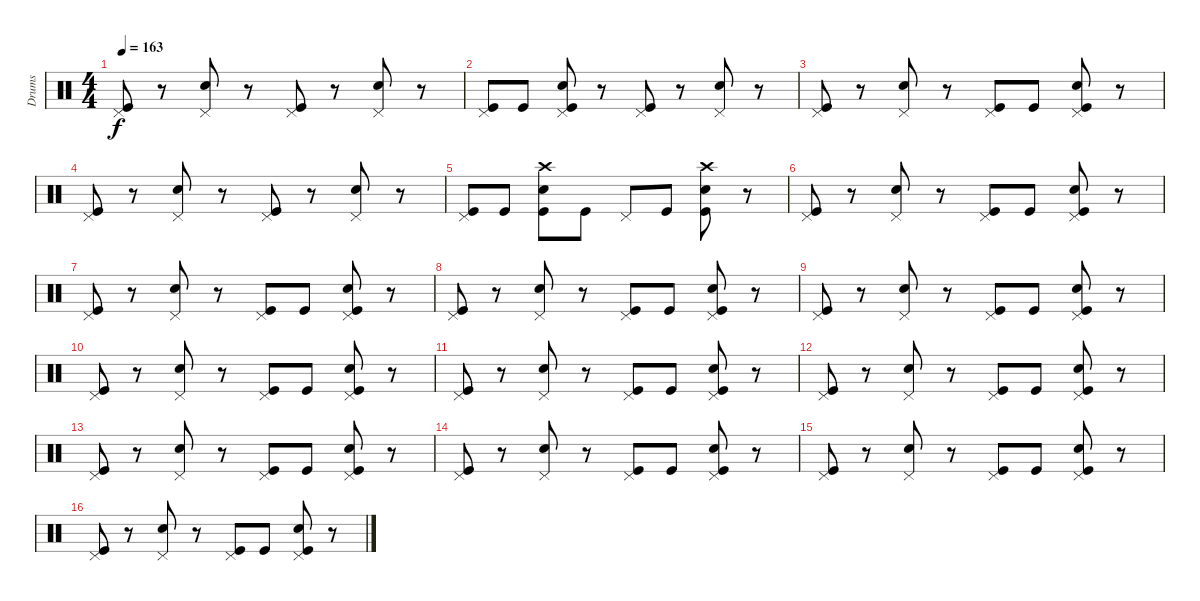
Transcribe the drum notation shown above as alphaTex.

\track ("Drums" "Drums") {instrument percussion}
\staff {score}
\articulation defaults
\ts (4 4)
\tempo 163
\clef neutral
\ks c
("Pedal Hi-Hat (hit)" "Kick (hit)").8{dy f} r.8 ("Pedal Hi-Hat (hit)" "Snare (hit) 2").8 r.8 ("Pedal Hi-Hat (hit)" "Kick (hit)").8 r.8 ("Pedal Hi-Hat (hit)" "Snare (hit) 2").8 r.8 |
("Pedal Hi-Hat (hit)" "Kick (hit)").8 "Kick (hit)".8 ("Pedal Hi-Hat (hit)" "Snare (hit) 2" "Kick (hit)").8 r.8 ("Pedal Hi-Hat (hit)" "Kick (hit)").8 r.8 ("Pedal Hi-Hat (hit)" "Snare (hit) 2").8 r.8 |
("Pedal Hi-Hat (hit)" "Kick (hit)").8 r.8 ("Pedal Hi-Hat (hit)" "Snare (hit) 2").8 r.8 ("Pedal Hi-Hat (hit)" "Kick (hit)").8 "Kick (hit)".8 ("Pedal Hi-Hat (hit)" "Snare (hit) 2" "Kick (hit)").8 r.8 |
("Pedal Hi-Hat (hit)" "Kick (hit)").8 r.8 ("Pedal Hi-Hat (hit)" "Snare (hit) 2").8 r.8 ("Pedal Hi-Hat (hit)" "Kick (hit)").8 r.8 ("Pedal Hi-Hat (hit)" "Snare (hit) 2").8 r.8 |
("Pedal Hi-Hat (hit)" "Kick (hit)").8 "Kick (hit)".8 ("Crash high (hit)" "Snare (hit) 2" "Kick (hit)").8 "Kick (hit)".8 "Pedal Hi-Hat (hit)".8 "Kick (hit)".8 ("Crash high (hit)" "Snare (hit) 2" "Kick (hit)").8 r.8 |
("Pedal Hi-Hat (hit)" "Kick (hit)").8 r.8 ("Pedal Hi-Hat (hit)" "Snare (hit) 2").8 r.8 ("Pedal Hi-Hat (hit)" "Kick (hit)").8 "Kick (hit)".8 ("Pedal Hi-Hat (hit)" "Snare (hit) 2" "Kick (hit)").8 r.8 |
("Pedal Hi-Hat (hit)" "Kick (hit)").8 r.8 ("Pedal Hi-Hat (hit)" "Snare (hit) 2").8 r.8 ("Pedal Hi-Hat (hit)" "Kick (hit)").8 "Kick (hit)".8 ("Pedal Hi-Hat (hit)" "Snare (hit) 2" "Kick (hit)").8 r.8 |
("Pedal Hi-Hat (hit)" "Kick (hit)").8 r.8 ("Pedal Hi-Hat (hit)" "Snare (hit) 2").8 r.8 ("Pedal Hi-Hat (hit)" "Kick (hit)").8 "Kick (hit)".8 ("Pedal Hi-Hat (hit)" "Snare (hit) 2" "Kick (hit)").8 r.8 |
("Pedal Hi-Hat (hit)" "Kick (hit)").8 r.8 ("Pedal Hi-Hat (hit)" "Snare (hit) 2").8 r.8 ("Pedal Hi-Hat (hit)" "Kick (hit)").8 "Kick (hit)".8 ("Pedal Hi-Hat (hit)" "Snare (hit) 2" "Kick (hit)").8 r.8 |
("Pedal Hi-Hat (hit)" "Kick (hit)").8 r.8 ("Pedal Hi-Hat (hit)" "Snare (hit) 2").8 r.8 ("Pedal Hi-Hat (hit)" "Kick (hit)").8 "Kick (hit)".8 ("Pedal Hi-Hat (hit)" "Snare (hit) 2" "Kick (hit)").8 r.8 |
("Pedal Hi-Hat (hit)" "Kick (hit)").8 r.8 ("Pedal Hi-Hat (hit)" "Snare (hit) 2").8 r.8 ("Pedal Hi-Hat (hit)" "Kick (hit)").8 "Kick (hit)".8 ("Pedal Hi-Hat (hit)" "Snare (hit) 2" "Kick (hit)").8 r.8 |
("Pedal Hi-Hat (hit)" "Kick (hit)").8 r.8 ("Pedal Hi-Hat (hit)" "Snare (hit) 2").8 r.8 ("Pedal Hi-Hat (hit)" "Kick (hit)").8 "Kick (hit)".8 ("Pedal Hi-Hat (hit)" "Snare (hit) 2" "Kick (hit)").8 r.8 |
("Pedal Hi-Hat (hit)" "Kick (hit)").8 r.8 ("Pedal Hi-Hat (hit)" "Snare (hit) 2").8 r.8 ("Pedal Hi-Hat (hit)" "Kick (hit)").8 "Kick (hit)".8 ("Pedal Hi-Hat (hit)" "Snare (hit) 2" "Kick (hit)").8 r.8 |
("Pedal Hi-Hat (hit)" "Kick (hit)").8 r.8 ("Pedal Hi-Hat (hit)" "Snare (hit) 2").8 r.8 ("Pedal Hi-Hat (hit)" "Kick (hit)").8 "Kick (hit)".8 ("Pedal Hi-Hat (hit)" "Snare (hit) 2" "Kick (hit)").8 r.8 |
("Pedal Hi-Hat (hit)" "Kick (hit)").8 r.8 ("Pedal Hi-Hat (hit)" "Snare (hit) 2").8 r.8 ("Pedal Hi-Hat (hit)" "Kick (hit)").8 "Kick (hit)".8 ("Pedal Hi-Hat (hit)" "Snare (hit) 2" "Kick (hit)").8 r.8 |
("Pedal Hi-Hat (hit)" "Kick (hit)").8 r.8 ("Pedal Hi-Hat (hit)" "Snare (hit) 2").8 r.8 ("Pedal Hi-Hat (hit)" "Kick (hit)").8 "Kick (hit)".8 ("Pedal Hi-Hat (hit)" "Snare (hit) 2" "Kick (hit)").8 r.8
